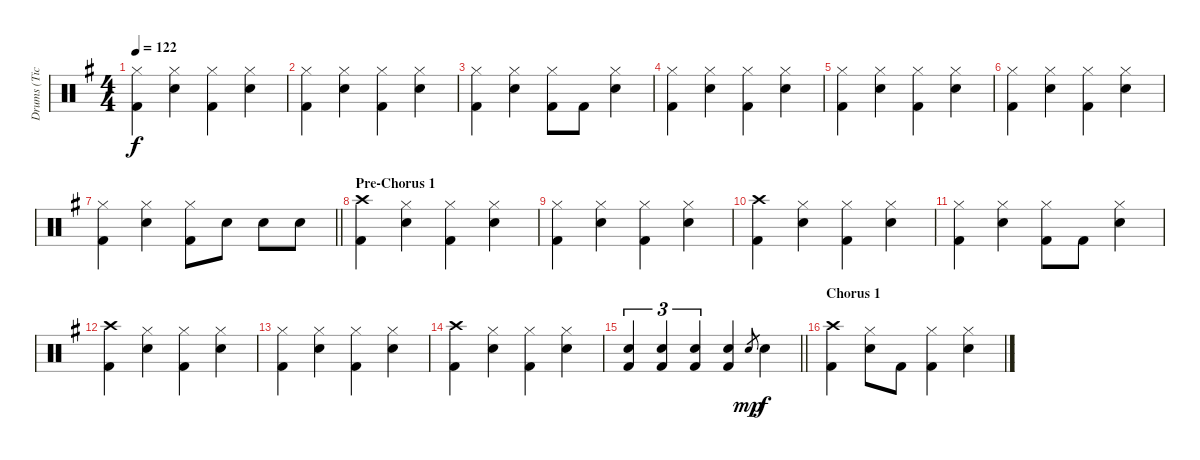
\track ("Drums (Tico Torres)" "Drums (Tic") {instrument percussion}
\staff {score}
\articulation defaults
\ts (4 4)
\tempo 122
\clef neutral
\ks eminor
("Hi-Hat (closed)" "Kick (hit) 2").4{dy f} ("Hi-Hat (closed)" "Snare (hit) 2").4 ("Hi-Hat (closed)" "Kick (hit) 2").4 ("Hi-Hat (closed)" "Snare (hit) 2").4 |
("Hi-Hat (closed)" "Kick (hit) 2").4 ("Hi-Hat (closed)" "Snare (hit) 2").4 ("Hi-Hat (closed)" "Kick (hit) 2").4 ("Hi-Hat (closed)" "Snare (hit) 2").4 |
("Hi-Hat (closed)" "Kick (hit) 2").4 ("Hi-Hat (closed)" "Snare (hit) 2").4 ("Hi-Hat (closed)" "Kick (hit) 2").8 "Kick (hit) 2".8 ("Hi-Hat (closed)" "Snare (hit) 2").4 |
("Hi-Hat (closed)" "Kick (hit) 2").4 ("Hi-Hat (closed)" "Snare (hit) 2").4 ("Hi-Hat (closed)" "Kick (hit) 2").4 ("Hi-Hat (closed)" "Snare (hit) 2").4 |
("Hi-Hat (closed)" "Kick (hit) 2").4 ("Hi-Hat (closed)" "Snare (hit) 2").4 ("Hi-Hat (closed)" "Kick (hit) 2").4 ("Hi-Hat (closed)" "Snare (hit) 2").4 |
("Hi-Hat (closed)" "Kick (hit) 2").4 ("Hi-Hat (closed)" "Snare (hit) 2").4 ("Hi-Hat (closed)" "Kick (hit) 2").4 ("Hi-Hat (closed)" "Snare (hit) 2").4 |
\barLineRight lightlight
("Hi-Hat (closed)" "Kick (hit) 2").4 ("Hi-Hat (closed)" "Snare (hit) 2").4 ("Hi-Hat (closed)" "Kick (hit) 2").8 "Snare (hit) 2".8 "Snare (hit) 2".8 "Snare (hit) 2".8 |
\section ("" "Pre-Chorus 1")
("Crash high (hit)" "Kick (hit) 2").4 ("Hi-Hat (closed)" "Snare (hit) 2").4 ("Hi-Hat (closed)" "Kick (hit) 2").4 ("Hi-Hat (closed)" "Snare (hit) 2").4 |
("Hi-Hat (closed)" "Kick (hit) 2").4 ("Hi-Hat (closed)" "Snare (hit) 2").4 ("Hi-Hat (closed)" "Kick (hit) 2").4 ("Hi-Hat (closed)" "Snare (hit) 2").4 |
("Crash high (hit)" "Kick (hit) 2").4 ("Hi-Hat (closed)" "Snare (hit) 2").4 ("Hi-Hat (closed)" "Kick (hit) 2").4 ("Hi-Hat (closed)" "Snare (hit) 2").4 |
("Hi-Hat (closed)" "Kick (hit) 2").4 ("Hi-Hat (closed)" "Snare (hit) 2").4 ("Hi-Hat (closed)" "Kick (hit) 2").8 "Kick (hit) 2".8 ("Hi-Hat (closed)" "Snare (hit) 2").4 |
("Crash high (hit)" "Kick (hit) 2").4 ("Hi-Hat (closed)" "Snare (hit) 2").4 ("Hi-Hat (closed)" "Kick (hit) 2").4 ("Hi-Hat (closed)" "Snare (hit) 2").4 |
("Hi-Hat (closed)" "Kick (hit) 2").4 ("Hi-Hat (closed)" "Snare (hit) 2").4 ("Hi-Hat (closed)" "Kick (hit) 2").4 ("Hi-Hat (closed)" "Snare (hit) 2").4 |
("Crash high (hit)" "Kick (hit) 2").4 ("Hi-Hat (closed)" "Snare (hit) 2").4 ("Hi-Hat (closed)" "Kick (hit) 2").4 ("Hi-Hat (closed)" "Snare (hit) 2").4 |
\barLineRight lightlight
("Snare (hit) 2" "Kick (hit) 2").4{tu (3 2)} ("Snare (hit) 2" "Kick (hit) 2").4{tu (3 2)} ("Snare (hit) 2" "Kick (hit) 2").4{tu (3 2)} ("Snare (hit) 2" "Kick (hit) 2").4 "Snare (hit) 2".8{gr dy mp} "Snare (hit) 2".4{dy f} |
\section ("" "Chorus 1")
("Crash high (hit)" "Kick (hit) 2").4 ("Hi-Hat (closed)" "Snare (hit) 2").8 "Kick (hit) 2".8 ("Hi-Hat (closed)" "Kick (hit) 2").4 ("Hi-Hat (closed)" "Snare (hit) 2").4
